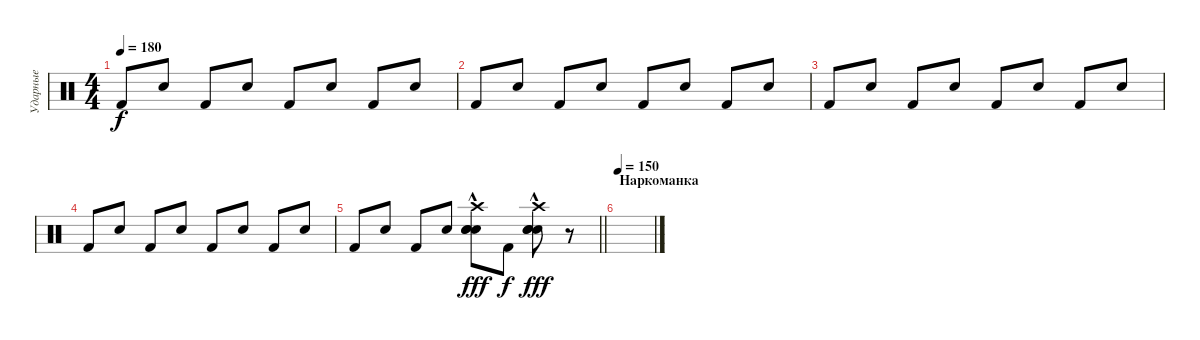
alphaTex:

\track ("Ударные" "Ударные") {instrument percussion}
\staff {score}
\articulation defaults
\ts (4 4)
\tempo 180
\clef neutral
\ks c "Kick (hit) 2".8{dy f} "Electric Snare (hit)".8 "Kick (hit) 2".8 "Electric Snare (hit)".8 "Kick (hit) 2".8 "Electric Snare (hit)".8 "Kick (hit) 2".8 "Electric Snare (hit)".8
|
"Kick (hit) 2".8 "Electric Snare (hit)".8 "Kick (hit) 2".8 "Electric Snare (hit)".8 "Kick (hit) 2".8 "Electric Snare (hit)".8 "Kick (hit) 2".8 "Electric Snare (hit)".8 |
"Kick (hit) 2".8 "Electric Snare (hit)".8 "Kick (hit) 2".8 "Electric Snare (hit)".8 "Kick (hit) 2".8 "Electric Snare (hit)".8 "Kick (hit) 2".8 "Electric Snare (hit)".8 |
"Kick (hit) 2".8 "Electric Snare (hit)".8 "Kick (hit) 2".8 "Electric Snare (hit)".8 "Kick (hit) 2".8 "Electric Snare (hit)".8 "Kick (hit) 2".8 "Electric Snare (hit)".8 |
\barLineRight lightlight "Kick (hit) 2".8 "Electric Snare (hit)".8 "Kick (hit) 2".8 "Electric Snare (hit)".8
("Electric Snare (hit)"{hac} "Snare (hit) 2"{hac} "Electric Snare (hit)" "Crash high (hit)"{hac}).8{dy fff} "Kick (hit) 2".8{dy f} ("Electric Snare (hit)"{hac} "Snare (hit) 2"{hac} "Electric Snare (hit)" "Crash high (hit)"{hac}).8{dy fff} r.8 |
\section ("" "Наркоманка")
\tempo 150
